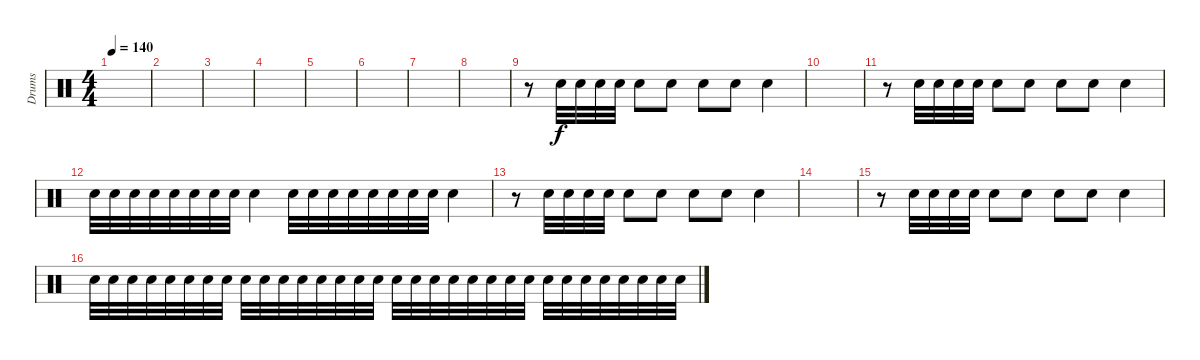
\track ("Drums" "Drums") {instrument percussion}
\staff {score}
\articulation defaults
\ts (4 4)
\tempo 140
\clef neutral
\ks c
|
|
|
|
|
|
|
|
r.8{volume 6} "Electric Snare (hit)".32 "Electric Snare (hit)".32 "Electric Snare (hit)".32 "Electric Snare (hit)".32 "Electric Snare (hit)".8 "Electric Snare (hit)".8 "Electric Snare (hit)".8 "Electric Snare (hit)".8 "Electric Snare (hit)".4 |
|
r.8{volume 6} "Electric Snare (hit)".32 "Electric Snare (hit)".32 "Electric Snare (hit)".32 "Electric Snare (hit)".32 "Electric Snare (hit)".8 "Electric Snare (hit)".8 "Electric Snare (hit)".8 "Electric Snare (hit)".8 "Electric Snare (hit)".4 |
"Electric Snare (hit)".32 "Electric Snare (hit)".32 "Electric Snare (hit)".32 "Electric Snare (hit)".32 "Electric Snare (hit)".32 "Electric Snare (hit)".32 "Electric Snare (hit)".32 "Electric Snare (hit)".32 "Electric Snare (hit)".4 "Electric Snare (hit)".32 "Electric Snare (hit)".32 "Electric Snare (hit)".32 "Electric Snare (hit)".32 "Electric Snare (hit)".32 "Electric Snare (hit)".32 "Electric Snare (hit)".32 "Electric Snare (hit)".32 "Electric Snare (hit)".4 |
r.8{volume 6} "Electric Snare (hit)".32 "Electric Snare (hit)".32 "Electric Snare (hit)".32 "Electric Snare (hit)".32 "Electric Snare (hit)".8 "Electric Snare (hit)".8 "Electric Snare (hit)".8 "Electric Snare (hit)".8 "Electric Snare (hit)".4 |
|
r.8{volume 6} "Electric Snare (hit)".32 "Electric Snare (hit)".32 "Electric Snare (hit)".32 "Electric Snare (hit)".32 "Electric Snare (hit)".8 "Electric Snare (hit)".8 "Electric Snare (hit)".8 "Electric Snare (hit)".8 "Electric Snare (hit)".4 |
"Electric Snare (hit)".32 "Electric Snare (hit)".32 "Electric Snare (hit)".32 "Electric Snare (hit)".32 "Electric Snare (hit)".32 "Electric Snare (hit)".32 "Electric Snare (hit)".32 "Electric Snare (hit)".32 "Electric Snare (hit)".32 "Electric Snare (hit)".32 "Electric Snare (hit)".32 "Electric Snare (hit)".32 "Electric Snare (hit)".32 "Electric Snare (hit)".32 "Electric Snare (hit)".32 "Electric Snare (hit)".32 "Electric Snare (hit)".32 "Electric Snare (hit)".32 "Electric Snare (hit)".32 "Electric Snare (hit)".32 "Electric Snare (hit)".32 "Electric Snare (hit)".32 "Electric Snare (hit)".32 "Electric Snare (hit)".32 "Electric Snare (hit)".32 "Electric Snare (hit)".32 "Electric Snare (hit)".32 "Electric Snare (hit)".32 "Electric Snare (hit)".32 "Electric Snare (hit)".32 "Electric Snare (hit)".32 "Electric Snare (hit)".32
